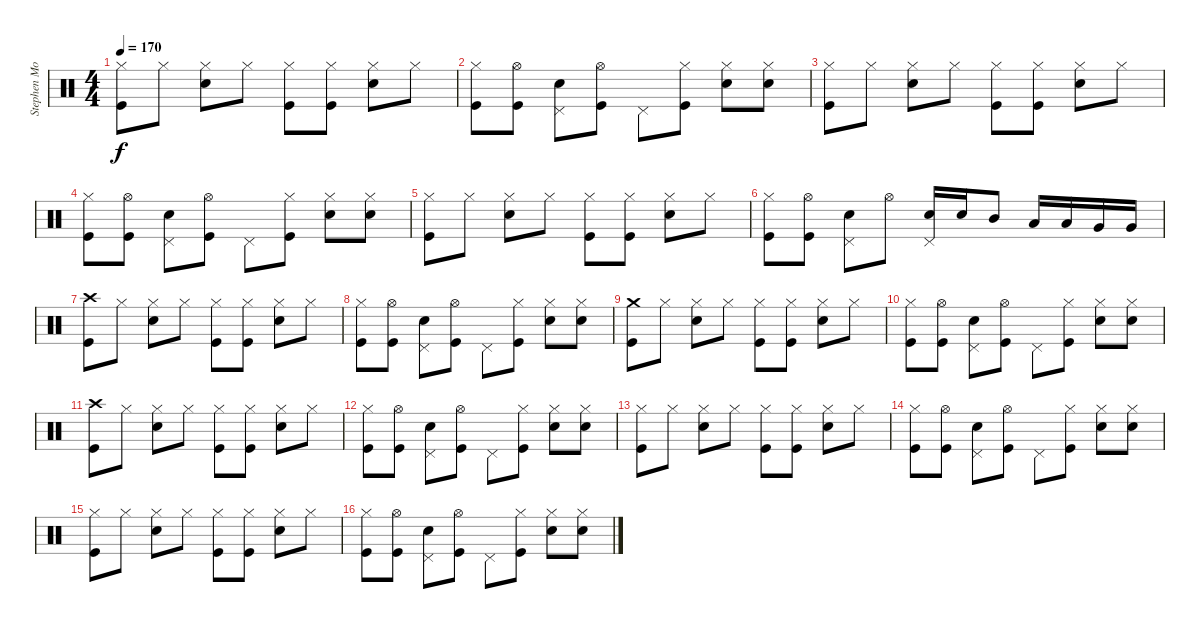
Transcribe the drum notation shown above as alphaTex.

\track ("Stephen Morris (Drums)" "Stephen Mo") {instrument percussion}
\staff {score}
\articulation defaults
\ts (4 4)
\tempo 170
\clef neutral
\ks c
("Hi-Hat (closed)" "Kick (hit)").8{dy f} "Hi-Hat (closed)".8 ("Hi-Hat (closed)" "Electric Snare (hit)").8 "Hi-Hat (closed)".8 ("Hi-Hat (closed)" "Kick (hit)").8 ("Hi-Hat (closed)" "Kick (hit)").8 ("Hi-Hat (closed)" "Electric Snare (hit)").8 "Hi-Hat (closed)".8 |
("Hi-Hat (closed)" "Kick (hit)").8 ("Hi-Hat (open)" "Kick (hit)").8 ("Pedal Hi-Hat (hit)" "Electric Snare (hit)").8 ("Hi-Hat (open)" "Kick (hit)").8 "Pedal Hi-Hat (hit)".8 ("Hi-Hat (closed)" "Kick (hit)").8 ("Hi-Hat (closed)" "Electric Snare (hit)").8 ("Hi-Hat (closed)" "Electric Snare (hit)").8 |
("Hi-Hat (closed)" "Kick (hit)").8 "Hi-Hat (closed)".8 ("Hi-Hat (closed)" "Electric Snare (hit)").8 "Hi-Hat (closed)".8 ("Hi-Hat (closed)" "Kick (hit)").8 ("Hi-Hat (closed)" "Kick (hit)").8 ("Hi-Hat (closed)" "Electric Snare (hit)").8 "Hi-Hat (closed)".8 |
("Hi-Hat (closed)" "Kick (hit)").8 ("Hi-Hat (open)" "Kick (hit)").8 ("Pedal Hi-Hat (hit)" "Electric Snare (hit)").8 ("Hi-Hat (open)" "Kick (hit)").8 "Pedal Hi-Hat (hit)".8 ("Hi-Hat (closed)" "Kick (hit)").8 ("Hi-Hat (closed)" "Electric Snare (hit)").8 ("Hi-Hat (closed)" "Electric Snare (hit)").8 |
("Hi-Hat (closed)" "Kick (hit)").8 "Hi-Hat (closed)".8 ("Hi-Hat (closed)" "Electric Snare (hit)").8 "Hi-Hat (closed)".8 ("Hi-Hat (closed)" "Kick (hit)").8 ("Hi-Hat (closed)" "Kick (hit)").8 ("Hi-Hat (closed)" "Electric Snare (hit)").8 "Hi-Hat (closed)".8 |
("Hi-Hat (closed)" "Kick (hit)").8 ("Hi-Hat (open)" "Kick (hit)").8 ("Pedal Hi-Hat (hit)" "Electric Snare (hit)").8 "Hi-Hat (open)".8 ("Pedal Hi-Hat (hit)" "Electric Snare (hit)").16 "Electric Snare (hit)".16 "Mid Tom (hit)".8 "Low Tom (hit)".16 "Low Tom (hit)".16 "Very Low Tom (hit)".16 "Very Low Tom (hit)".16 |
("Crash high (hit)" "Kick (hit)").8 "Hi-Hat (closed)".8 ("Hi-Hat (closed)" "Electric Snare (hit)").8 "Hi-Hat (closed)".8 ("Hi-Hat (closed)" "Kick (hit)").8 ("Hi-Hat (closed)" "Kick (hit)").8 ("Hi-Hat (closed)" "Electric Snare (hit)").8 "Hi-Hat (closed)".8 |
("Hi-Hat (closed)" "Kick (hit)").8 ("Hi-Hat (open)" "Kick (hit)").8 ("Pedal Hi-Hat (hit)" "Electric Snare (hit)").8 ("Hi-Hat (open)" "Kick (hit)").8 "Pedal Hi-Hat (hit)".8 ("Hi-Hat (closed)" "Kick (hit)").8 ("Hi-Hat (closed)" "Electric Snare (hit)").8 ("Hi-Hat (closed)" "Electric Snare (hit)").8 |
("Crash medium (hit)" "Kick (hit)").8 "Hi-Hat (closed)".8 ("Hi-Hat (closed)" "Electric Snare (hit)").8 "Hi-Hat (closed)".8 ("Hi-Hat (closed)" "Kick (hit)").8 ("Hi-Hat (closed)" "Kick (hit)").8 ("Hi-Hat (closed)" "Electric Snare (hit)").8 "Hi-Hat (closed)".8 |
("Hi-Hat (closed)" "Kick (hit)").8 ("Hi-Hat (open)" "Kick (hit)").8 ("Pedal Hi-Hat (hit)" "Electric Snare (hit)").8 ("Hi-Hat (open)" "Kick (hit)").8 "Pedal Hi-Hat (hit)".8 ("Hi-Hat (closed)" "Kick (hit)").8 ("Hi-Hat (closed)" "Electric Snare (hit)").8 ("Hi-Hat (closed)" "Electric Snare (hit)").8 |
("Crash high (hit)" "Kick (hit)").8 "Hi-Hat (closed)".8 ("Hi-Hat (closed)" "Electric Snare (hit)").8 "Hi-Hat (closed)".8 ("Hi-Hat (closed)" "Kick (hit)").8 ("Hi-Hat (closed)" "Kick (hit)").8 ("Hi-Hat (closed)" "Electric Snare (hit)").8 "Hi-Hat (closed)".8 |
("Hi-Hat (closed)" "Kick (hit)").8 ("Hi-Hat (open)" "Kick (hit)").8 ("Pedal Hi-Hat (hit)" "Electric Snare (hit)").8 ("Hi-Hat (open)" "Kick (hit)").8 "Pedal Hi-Hat (hit)".8 ("Hi-Hat (closed)" "Kick (hit)").8 ("Hi-Hat (closed)" "Electric Snare (hit)").8 ("Hi-Hat (closed)" "Electric Snare (hit)").8 |
("Hi-Hat (closed)" "Kick (hit)").8 "Hi-Hat (closed)".8 ("Hi-Hat (closed)" "Electric Snare (hit)").8 "Hi-Hat (closed)".8 ("Hi-Hat (closed)" "Kick (hit)").8 ("Hi-Hat (closed)" "Kick (hit)").8 ("Hi-Hat (closed)" "Electric Snare (hit)").8 "Hi-Hat (closed)".8 |
("Hi-Hat (closed)" "Kick (hit)").8 ("Hi-Hat (open)" "Kick (hit)").8 ("Pedal Hi-Hat (hit)" "Electric Snare (hit)").8 ("Hi-Hat (open)" "Kick (hit)").8 "Pedal Hi-Hat (hit)".8 ("Hi-Hat (closed)" "Kick (hit)").8 ("Hi-Hat (closed)" "Electric Snare (hit)").8 ("Hi-Hat (closed)" "Electric Snare (hit)").8 |
("Hi-Hat (closed)" "Kick (hit)").8 "Hi-Hat (closed)".8 ("Hi-Hat (closed)" "Electric Snare (hit)").8 "Hi-Hat (closed)".8 ("Hi-Hat (closed)" "Kick (hit)").8 ("Hi-Hat (closed)" "Kick (hit)").8 ("Hi-Hat (closed)" "Electric Snare (hit)").8 "Hi-Hat (closed)".8 |
("Hi-Hat (closed)" "Kick (hit)").8 ("Hi-Hat (open)" "Kick (hit)").8 ("Pedal Hi-Hat (hit)" "Electric Snare (hit)").8 ("Hi-Hat (open)" "Kick (hit)").8 "Pedal Hi-Hat (hit)".8 ("Hi-Hat (closed)" "Kick (hit)").8 ("Hi-Hat (closed)" "Electric Snare (hit)").8 ("Hi-Hat (closed)" "Electric Snare (hit)").8
